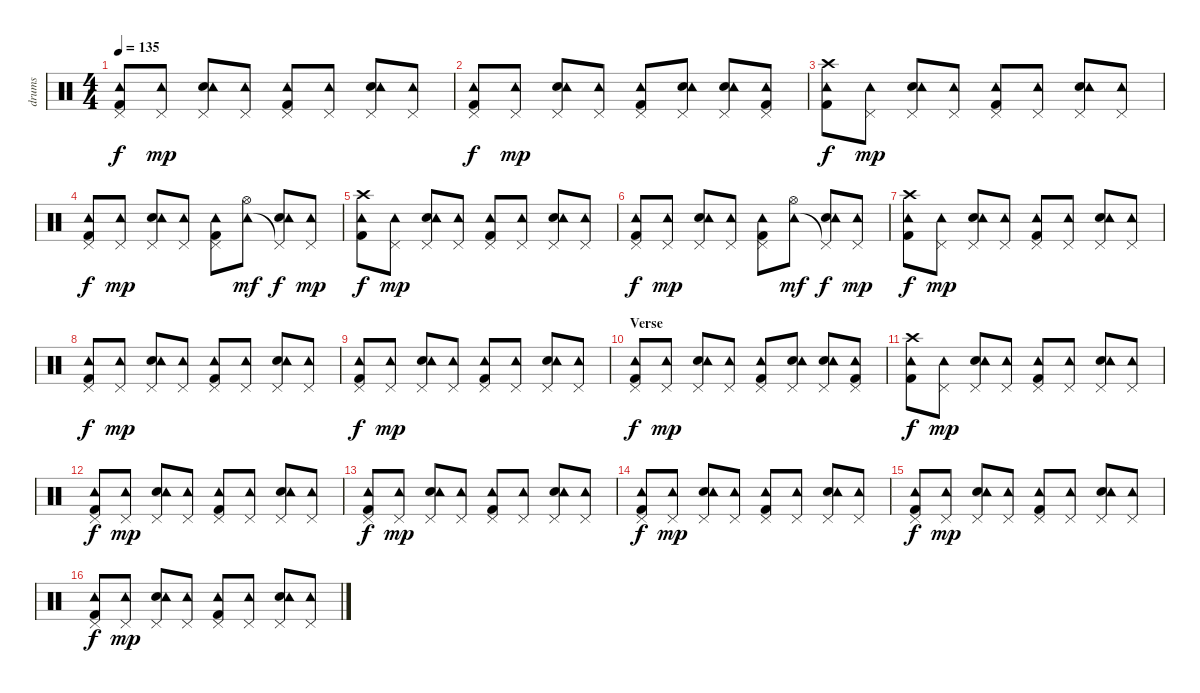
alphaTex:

\track ("drums" "drums") {instrument percussion}
\staff {score}
\articulation defaults
\ts (4 4)
\tempo 135
\clef neutral
\ks c
("Kick (hit) 2" "Pedal Hi-Hat (hit)" "Tambourine (hit)").8{dy f} ("Pedal Hi-Hat (hit)" "Tambourine (hit)").8{dy mp} ("Electric Snare (hit)" "Pedal Hi-Hat (hit)" "Tambourine (hit)").8 ("Pedal Hi-Hat (hit)" "Tambourine (hit)").8 ("Kick (hit) 2" "Pedal Hi-Hat (hit)" "Tambourine (hit)").8 ("Pedal Hi-Hat (hit)" "Tambourine (hit)").8 ("Electric Snare (hit)" "Pedal Hi-Hat (hit)" "Tambourine (hit)").8 ("Pedal Hi-Hat (hit)" "Tambourine (hit)").8 |
("Kick (hit) 2" "Pedal Hi-Hat (hit)" "Tambourine (hit)").8{dy f} ("Pedal Hi-Hat (hit)" "Tambourine (hit)").8{dy mp} ("Electric Snare (hit)" "Pedal Hi-Hat (hit)" "Tambourine (hit)").8 ("Pedal Hi-Hat (hit)" "Tambourine (hit)").8 ("Kick (hit) 2" "Pedal Hi-Hat (hit)" "Tambourine (hit)").8 ("Electric Snare (hit)" "Pedal Hi-Hat (hit)" "Tambourine (hit)").8 ("Electric Snare (hit)" "Pedal Hi-Hat (hit)" "Tambourine (hit)").8 ("Kick (hit) 2" "Pedal Hi-Hat (hit)" "Tambourine (hit)").8 |
("Kick (hit) 2" "Crash high (hit)" "Tambourine (hit)").8{dy f} ("Pedal Hi-Hat (hit)" "Tambourine (hit)").8{dy mp} ("Electric Snare (hit)" "Pedal Hi-Hat (hit)" "Tambourine (hit)").8 ("Pedal Hi-Hat (hit)" "Tambourine (hit)").8 ("Kick (hit) 2" "Pedal Hi-Hat (hit)" "Tambourine (hit)").8 ("Pedal Hi-Hat (hit)" "Tambourine (hit)").8 ("Electric Snare (hit)" "Pedal Hi-Hat (hit)" "Tambourine (hit)").8 ("Pedal Hi-Hat (hit)" "Tambourine (hit)").8 |
("Kick (hit) 2" "Pedal Hi-Hat (hit)" "Tambourine (hit)").8{dy f} ("Pedal Hi-Hat (hit)" "Tambourine (hit)").8{dy mp} ("Electric Snare (hit)" "Pedal Hi-Hat (hit)" "Tambourine (hit)").8 ("Pedal Hi-Hat (hit)" "Tambourine (hit)").8 ("Kick (hit) 2" "Pedal Hi-Hat (hit)" "Tambourine (hit)").8 ("Hi-Hat (open)" "Tambourine (hit)").8{dy mf} ("Electric Snare (hit)" "Pedal Hi-Hat (hit)"{t} "Tambourine (hit)").8{dy f} ("Pedal Hi-Hat (hit)" "Tambourine (hit)").8{dy mp} |
("Kick (hit) 2" "Crash high (hit)" "Tambourine (hit)").8{dy f} ("Pedal Hi-Hat (hit)" "Tambourine (hit)").8{dy mp} ("Electric Snare (hit)" "Pedal Hi-Hat (hit)" "Tambourine (hit)").8 ("Pedal Hi-Hat (hit)" "Tambourine (hit)").8 ("Kick (hit) 2" "Pedal Hi-Hat (hit)" "Tambourine (hit)").8 ("Pedal Hi-Hat (hit)" "Tambourine (hit)").8 ("Electric Snare (hit)" "Pedal Hi-Hat (hit)" "Tambourine (hit)").8 ("Pedal Hi-Hat (hit)" "Tambourine (hit)").8 |
("Kick (hit) 2" "Pedal Hi-Hat (hit)" "Tambourine (hit)").8{dy f} ("Pedal Hi-Hat (hit)" "Tambourine (hit)").8{dy mp} ("Electric Snare (hit)" "Pedal Hi-Hat (hit)" "Tambourine (hit)").8 ("Pedal Hi-Hat (hit)" "Tambourine (hit)").8 ("Kick (hit) 2" "Pedal Hi-Hat (hit)" "Tambourine (hit)").8 ("Hi-Hat (open)" "Tambourine (hit)").8{dy mf} ("Electric Snare (hit)" "Pedal Hi-Hat (hit)"{t} "Tambourine (hit)").8{dy f} ("Pedal Hi-Hat (hit)" "Tambourine (hit)").8{dy mp} |
("Kick (hit) 2" "Crash high (hit)" "Tambourine (hit)").8{dy f} ("Pedal Hi-Hat (hit)" "Tambourine (hit)").8{dy mp} ("Electric Snare (hit)" "Pedal Hi-Hat (hit)" "Tambourine (hit)").8 ("Pedal Hi-Hat (hit)" "Tambourine (hit)").8 ("Kick (hit) 2" "Pedal Hi-Hat (hit)" "Tambourine (hit)").8 ("Pedal Hi-Hat (hit)" "Tambourine (hit)").8 ("Electric Snare (hit)" "Pedal Hi-Hat (hit)" "Tambourine (hit)").8 ("Pedal Hi-Hat (hit)" "Tambourine (hit)").8 |
("Kick (hit) 2" "Pedal Hi-Hat (hit)" "Tambourine (hit)").8{dy f} ("Pedal Hi-Hat (hit)" "Tambourine (hit)").8{dy mp} ("Electric Snare (hit)" "Pedal Hi-Hat (hit)" "Tambourine (hit)").8 ("Pedal Hi-Hat (hit)" "Tambourine (hit)").8 ("Kick (hit) 2" "Pedal Hi-Hat (hit)" "Tambourine (hit)").8 ("Pedal Hi-Hat (hit)" "Tambourine (hit)").8 ("Electric Snare (hit)" "Pedal Hi-Hat (hit)" "Tambourine (hit)").8 ("Pedal Hi-Hat (hit)" "Tambourine (hit)").8 |
("Kick (hit) 2" "Pedal Hi-Hat (hit)" "Tambourine (hit)").8{dy f} ("Pedal Hi-Hat (hit)" "Tambourine (hit)").8{dy mp} ("Electric Snare (hit)" "Pedal Hi-Hat (hit)" "Tambourine (hit)").8 ("Pedal Hi-Hat (hit)" "Tambourine (hit)").8 ("Kick (hit) 2" "Pedal Hi-Hat (hit)" "Tambourine (hit)").8 ("Pedal Hi-Hat (hit)" "Tambourine (hit)").8 ("Electric Snare (hit)" "Pedal Hi-Hat (hit)" "Tambourine (hit)").8 ("Pedal Hi-Hat (hit)" "Tambourine (hit)").8 |
\section ("" "Verse")
("Kick (hit) 2" "Pedal Hi-Hat (hit)" "Tambourine (hit)").8{dy f} ("Pedal Hi-Hat (hit)" "Tambourine (hit)").8{dy mp} ("Electric Snare (hit)" "Pedal Hi-Hat (hit)" "Tambourine (hit)").8 ("Pedal Hi-Hat (hit)" "Tambourine (hit)").8 ("Kick (hit) 2" "Pedal Hi-Hat (hit)" "Tambourine (hit)").8 ("Electric Snare (hit)" "Pedal Hi-Hat (hit)" "Tambourine (hit)").8 ("Electric Snare (hit)" "Pedal Hi-Hat (hit)" "Tambourine (hit)").8 ("Kick (hit) 2" "Pedal Hi-Hat (hit)" "Tambourine (hit)").8 |
("Kick (hit) 2" "Crash high (hit)" "Tambourine (hit)").8{dy f} ("Pedal Hi-Hat (hit)" "Tambourine (hit)").8{dy mp} ("Electric Snare (hit)" "Pedal Hi-Hat (hit)" "Tambourine (hit)").8 ("Pedal Hi-Hat (hit)" "Tambourine (hit)").8 ("Kick (hit) 2" "Pedal Hi-Hat (hit)" "Tambourine (hit)").8 ("Pedal Hi-Hat (hit)" "Tambourine (hit)").8 ("Electric Snare (hit)" "Pedal Hi-Hat (hit)" "Tambourine (hit)").8 ("Pedal Hi-Hat (hit)" "Tambourine (hit)").8 |
("Kick (hit) 2" "Pedal Hi-Hat (hit)" "Tambourine (hit)").8{dy f} ("Pedal Hi-Hat (hit)" "Tambourine (hit)").8{dy mp} ("Electric Snare (hit)" "Pedal Hi-Hat (hit)" "Tambourine (hit)").8 ("Pedal Hi-Hat (hit)" "Tambourine (hit)").8 ("Kick (hit) 2" "Pedal Hi-Hat (hit)" "Tambourine (hit)").8 ("Pedal Hi-Hat (hit)" "Tambourine (hit)").8 ("Electric Snare (hit)" "Pedal Hi-Hat (hit)" "Tambourine (hit)").8 ("Pedal Hi-Hat (hit)" "Tambourine (hit)").8 |
("Kick (hit) 2" "Pedal Hi-Hat (hit)" "Tambourine (hit)").8{dy f} ("Pedal Hi-Hat (hit)" "Tambourine (hit)").8{dy mp} ("Electric Snare (hit)" "Pedal Hi-Hat (hit)" "Tambourine (hit)").8 ("Pedal Hi-Hat (hit)" "Tambourine (hit)").8 ("Kick (hit) 2" "Pedal Hi-Hat (hit)" "Tambourine (hit)").8 ("Pedal Hi-Hat (hit)" "Tambourine (hit)").8 ("Electric Snare (hit)" "Pedal Hi-Hat (hit)" "Tambourine (hit)").8 ("Pedal Hi-Hat (hit)" "Tambourine (hit)").8 |
("Kick (hit) 2" "Pedal Hi-Hat (hit)" "Tambourine (hit)").8{dy f} ("Pedal Hi-Hat (hit)" "Tambourine (hit)").8{dy mp} ("Electric Snare (hit)" "Pedal Hi-Hat (hit)" "Tambourine (hit)").8 ("Pedal Hi-Hat (hit)" "Tambourine (hit)").8 ("Kick (hit) 2" "Pedal Hi-Hat (hit)" "Tambourine (hit)").8 ("Pedal Hi-Hat (hit)" "Tambourine (hit)").8 ("Electric Snare (hit)" "Pedal Hi-Hat (hit)" "Tambourine (hit)").8 ("Pedal Hi-Hat (hit)" "Tambourine (hit)").8 |
("Kick (hit) 2" "Pedal Hi-Hat (hit)" "Tambourine (hit)").8{dy f} ("Pedal Hi-Hat (hit)" "Tambourine (hit)").8{dy mp} ("Electric Snare (hit)" "Pedal Hi-Hat (hit)" "Tambourine (hit)").8 ("Pedal Hi-Hat (hit)" "Tambourine (hit)").8 ("Kick (hit) 2" "Pedal Hi-Hat (hit)" "Tambourine (hit)").8 ("Pedal Hi-Hat (hit)" "Tambourine (hit)").8 ("Electric Snare (hit)" "Pedal Hi-Hat (hit)" "Tambourine (hit)").8 ("Pedal Hi-Hat (hit)" "Tambourine (hit)").8 |
("Kick (hit) 2" "Pedal Hi-Hat (hit)" "Tambourine (hit)").8{dy f} ("Pedal Hi-Hat (hit)" "Tambourine (hit)").8{dy mp} ("Electric Snare (hit)" "Pedal Hi-Hat (hit)" "Tambourine (hit)").8 ("Pedal Hi-Hat (hit)" "Tambourine (hit)").8 ("Kick (hit) 2" "Pedal Hi-Hat (hit)" "Tambourine (hit)").8 ("Pedal Hi-Hat (hit)" "Tambourine (hit)").8 ("Electric Snare (hit)" "Pedal Hi-Hat (hit)" "Tambourine (hit)").8 ("Pedal Hi-Hat (hit)" "Tambourine (hit)").8
